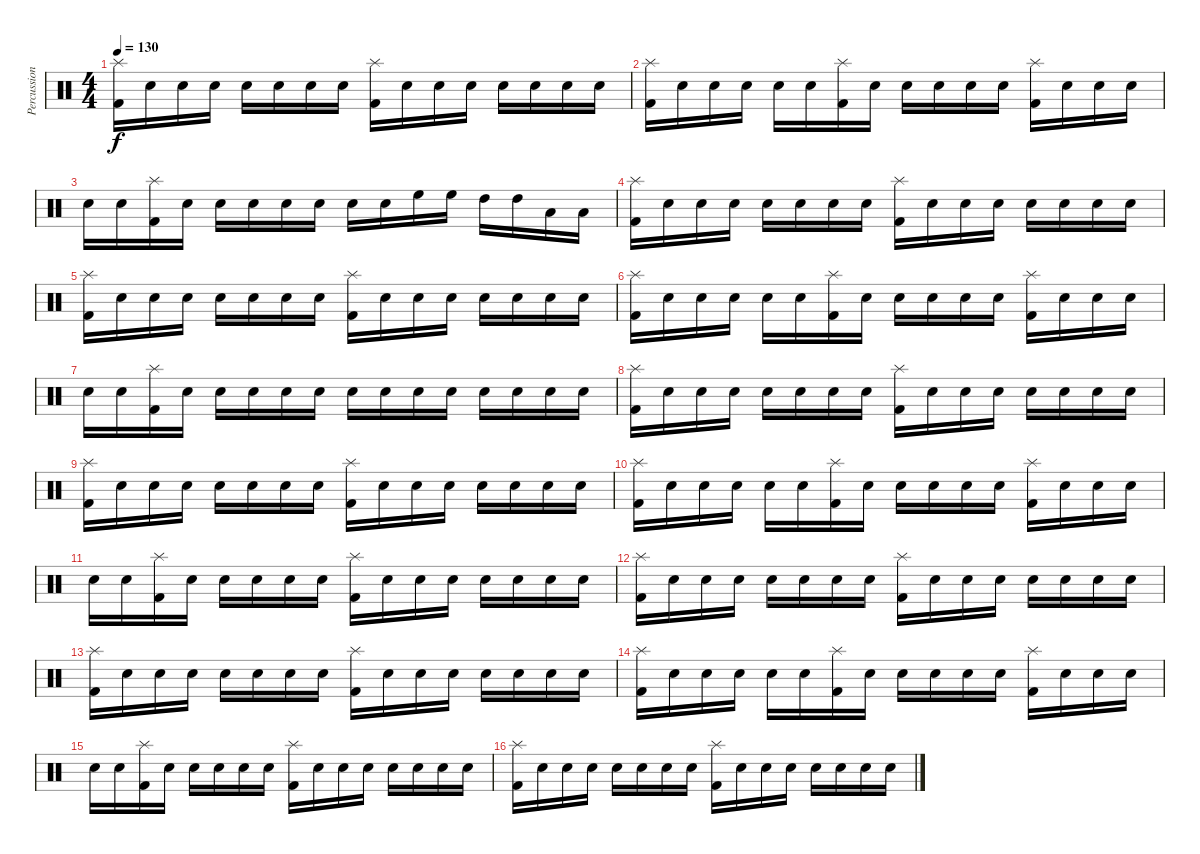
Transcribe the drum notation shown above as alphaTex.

\track ("Percussion" "Percussion") {instrument percussion}
\staff {score}
\articulation defaults
\ts (4 4)
\tempo 130
\clef neutral
\ks c
("Kick (hit) 2" "Splash (hit)").16{dy f} "Snare (hit) 2".16 "Snare (hit) 2".16 "Snare (hit) 2".16 "Snare (hit) 2".16 "Snare (hit) 2".16 "Snare (hit) 2".16 "Snare (hit) 2".16 ("Kick (hit) 2" "Splash (hit)").16 "Snare (hit) 2".16 "Snare (hit) 2".16 "Snare (hit) 2".16 "Snare (hit) 2".16 "Snare (hit) 2".16 "Snare (hit) 2".16 "Snare (hit) 2".16 |
("Kick (hit) 2" "Splash (hit)").16 "Snare (hit) 2".16 "Snare (hit) 2".16 "Snare (hit) 2".16 "Snare (hit) 2".16 "Snare (hit) 2".16 ("Kick (hit) 2" "Splash (hit)").16 "Snare (hit) 2".16 "Snare (hit) 2".16 "Snare (hit) 2".16 "Snare (hit) 2".16 "Snare (hit) 2".16 ("Kick (hit) 2" "Splash (hit)").16 "Snare (hit) 2".16 "Snare (hit) 2".16 "Snare (hit) 2".16 |
"Snare (hit) 2".16 "Snare (hit) 2".16 ("Kick (hit) 2" "Splash (hit)").16 "Snare (hit) 2".16 "Snare (hit) 2".16 "Snare (hit) 2".16 "Snare (hit) 2".16 "Snare (hit) 2".16 "Snare (hit) 2".16 "Snare (hit) 2".16 "High Floor Tom (hit)".16 "High Floor Tom (hit)".16 "High Tom (hit)".16 "High Tom (hit)".16 "Low Tom (hit)".16 "Low Tom (hit)".16 |
("Kick (hit) 2" "Splash (hit)").16 "Snare (hit) 2".16 "Snare (hit) 2".16 "Snare (hit) 2".16 "Snare (hit) 2".16 "Snare (hit) 2".16 "Snare (hit) 2".16 "Snare (hit) 2".16 ("Kick (hit) 2" "Splash (hit)").16 "Snare (hit) 2".16 "Snare (hit) 2".16 "Snare (hit) 2".16 "Snare (hit) 2".16 "Snare (hit) 2".16 "Snare (hit) 2".16 "Snare (hit) 2".16 |
("Kick (hit) 2" "Splash (hit)").16 "Snare (hit) 2".16 "Snare (hit) 2".16 "Snare (hit) 2".16 "Snare (hit) 2".16 "Snare (hit) 2".16 "Snare (hit) 2".16 "Snare (hit) 2".16 ("Kick (hit) 2" "Splash (hit)").16 "Snare (hit) 2".16 "Snare (hit) 2".16 "Snare (hit) 2".16 "Snare (hit) 2".16 "Snare (hit) 2".16 "Snare (hit) 2".16 "Snare (hit) 2".16 |
("Kick (hit) 2" "Splash (hit)").16 "Snare (hit) 2".16 "Snare (hit) 2".16 "Snare (hit) 2".16 "Snare (hit) 2".16 "Snare (hit) 2".16 ("Kick (hit) 2" "Splash (hit)").16 "Snare (hit) 2".16 "Snare (hit) 2".16 "Snare (hit) 2".16 "Snare (hit) 2".16 "Snare (hit) 2".16 ("Kick (hit) 2" "Splash (hit)").16 "Snare (hit) 2".16 "Snare (hit) 2".16 "Snare (hit) 2".16 |
"Snare (hit) 2".16 "Snare (hit) 2".16 ("Kick (hit) 2" "Splash (hit)").16 "Snare (hit) 2".16 "Snare (hit) 2".16 "Snare (hit) 2".16 "Snare (hit) 2".16 "Snare (hit) 2".16 "Snare (hit) 2".16 "Snare (hit) 2".16 "Snare (hit) 2".16 "Snare (hit) 2".16 "Snare (hit) 2".16 "Snare (hit) 2".16 "Snare (hit) 2".16 "Snare (hit) 2".16 |
("Kick (hit) 2" "Splash (hit)").16 "Snare (hit) 2".16 "Snare (hit) 2".16 "Snare (hit) 2".16 "Snare (hit) 2".16 "Snare (hit) 2".16 "Snare (hit) 2".16 "Snare (hit) 2".16 ("Kick (hit) 2" "Splash (hit)").16 "Snare (hit) 2".16 "Snare (hit) 2".16 "Snare (hit) 2".16 "Snare (hit) 2".16 "Snare (hit) 2".16 "Snare (hit) 2".16 "Snare (hit) 2".16 |
("Kick (hit) 2" "Splash (hit)").16 "Snare (hit) 2".16 "Snare (hit) 2".16 "Snare (hit) 2".16 "Snare (hit) 2".16 "Snare (hit) 2".16 "Snare (hit) 2".16 "Snare (hit) 2".16 ("Kick (hit) 2" "Splash (hit)").16 "Snare (hit) 2".16 "Snare (hit) 2".16 "Snare (hit) 2".16 "Snare (hit) 2".16 "Snare (hit) 2".16 "Snare (hit) 2".16 "Snare (hit) 2".16 |
("Kick (hit) 2" "Splash (hit)").16 "Snare (hit) 2".16 "Snare (hit) 2".16 "Snare (hit) 2".16 "Snare (hit) 2".16 "Snare (hit) 2".16 ("Kick (hit) 2" "Splash (hit)").16 "Snare (hit) 2".16 "Snare (hit) 2".16 "Snare (hit) 2".16 "Snare (hit) 2".16 "Snare (hit) 2".16 ("Kick (hit) 2" "Splash (hit)").16 "Snare (hit) 2".16 "Snare (hit) 2".16 "Snare (hit) 2".16 |
"Snare (hit) 2".16 "Snare (hit) 2".16 ("Kick (hit) 2" "Splash (hit)").16 "Snare (hit) 2".16 "Snare (hit) 2".16 "Snare (hit) 2".16 "Snare (hit) 2".16 "Snare (hit) 2".16 ("Kick (hit) 2" "Splash (hit)").16 "Snare (hit) 2".16 "Snare (hit) 2".16 "Snare (hit) 2".16 "Snare (hit) 2".16 "Snare (hit) 2".16 "Snare (hit) 2".16 "Snare (hit) 2".16 |
("Kick (hit) 2" "Splash (hit)").16 "Snare (hit) 2".16 "Snare (hit) 2".16 "Snare (hit) 2".16 "Snare (hit) 2".16 "Snare (hit) 2".16 "Snare (hit) 2".16 "Snare (hit) 2".16 ("Kick (hit) 2" "Splash (hit)").16 "Snare (hit) 2".16 "Snare (hit) 2".16 "Snare (hit) 2".16 "Snare (hit) 2".16 "Snare (hit) 2".16 "Snare (hit) 2".16 "Snare (hit) 2".16 |
("Kick (hit) 2" "Splash (hit)").16 "Snare (hit) 2".16 "Snare (hit) 2".16 "Snare (hit) 2".16 "Snare (hit) 2".16 "Snare (hit) 2".16 "Snare (hit) 2".16 "Snare (hit) 2".16 ("Kick (hit) 2" "Splash (hit)").16 "Snare (hit) 2".16 "Snare (hit) 2".16 "Snare (hit) 2".16 "Snare (hit) 2".16 "Snare (hit) 2".16 "Snare (hit) 2".16 "Snare (hit) 2".16 |
("Kick (hit) 2" "Splash (hit)").16 "Snare (hit) 2".16 "Snare (hit) 2".16 "Snare (hit) 2".16 "Snare (hit) 2".16 "Snare (hit) 2".16 ("Kick (hit) 2" "Splash (hit)").16 "Snare (hit) 2".16 "Snare (hit) 2".16 "Snare (hit) 2".16 "Snare (hit) 2".16 "Snare (hit) 2".16 ("Kick (hit) 2" "Splash (hit)").16 "Snare (hit) 2".16 "Snare (hit) 2".16 "Snare (hit) 2".16 |
"Snare (hit) 2".16 "Snare (hit) 2".16 ("Kick (hit) 2" "Splash (hit)").16 "Snare (hit) 2".16 "Snare (hit) 2".16 "Snare (hit) 2".16 "Snare (hit) 2".16 "Snare (hit) 2".16 ("Kick (hit) 2" "Splash (hit)").16 "Snare (hit) 2".16 "Snare (hit) 2".16 "Snare (hit) 2".16 "Snare (hit) 2".16 "Snare (hit) 2".16 "Snare (hit) 2".16 "Snare (hit) 2".16 |
("Kick (hit) 2" "Splash (hit)").16 "Snare (hit) 2".16 "Snare (hit) 2".16 "Snare (hit) 2".16 "Snare (hit) 2".16 "Snare (hit) 2".16 "Snare (hit) 2".16 "Snare (hit) 2".16 ("Kick (hit) 2" "Splash (hit)").16 "Snare (hit) 2".16 "Snare (hit) 2".16 "Snare (hit) 2".16 "Snare (hit) 2".16 "Snare (hit) 2".16 "Snare (hit) 2".16 "Snare (hit) 2".16
